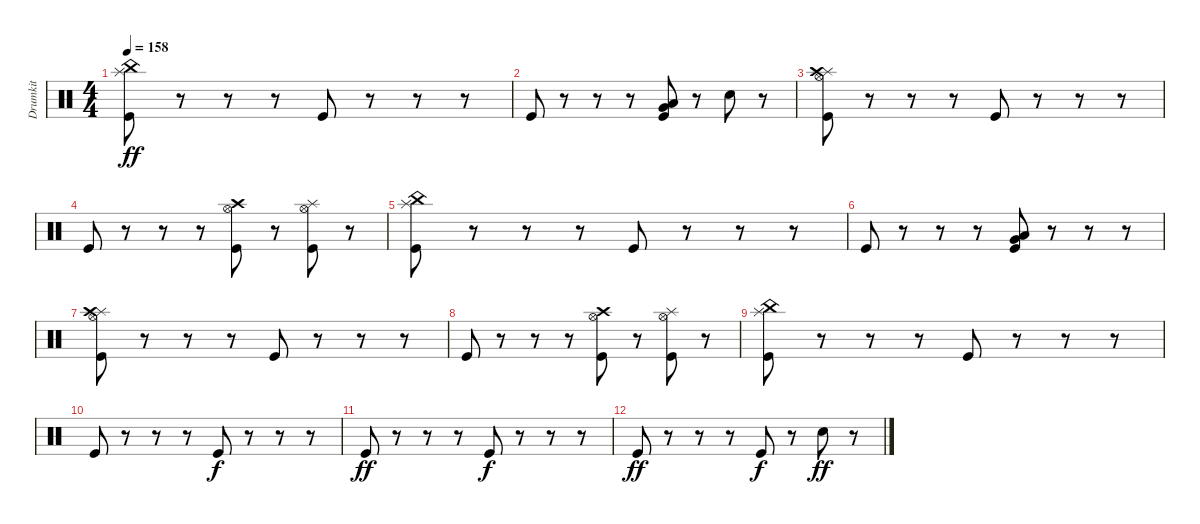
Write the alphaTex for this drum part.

\track ("Drumkit" "Drumkit") {instrument percussion}
\staff {score}
\articulation defaults
\ts (4 4)
\tempo 158
\clef neutral
\ks c
("Splash (hit)" "China (hit)" "Kick (hit)").8{dy ff} r.8 r.8 r.8 "Kick (hit)".8 r.8 r.8 r.8 |
"Kick (hit)".8 r.8 r.8 r.8 ("Low Floor Tom (hit)" "Very Low Tom (hit)" "Kick (hit)").8 r.8 "Snare (hit) 2".8 r.8 |
("Splash (hit)" "Hi-Hat (open)" "Crash high (hit)" "Kick (hit)").8 r.8 r.8 r.8 "Kick (hit)".8 r.8 r.8 r.8 |
"Kick (hit)".8 r.8 r.8 r.8 ("Kick (hit)" "Hi-Hat (open)" "Crash high (hit)").8 r.8 ("Kick (hit)" "Hi-Hat (open)" "Splash (hit)").8 r.8 |
("Splash (hit)" "China (hit)" "Kick (hit)").8 r.8 r.8 r.8 "Kick (hit)".8 r.8 r.8 r.8 |
"Kick (hit)".8 r.8 r.8 r.8 ("Low Floor Tom (hit)" "Very Low Tom (hit)" "Kick (hit)").8 r.8 r.8 r.8 |
("Splash (hit)" "Hi-Hat (open)" "Crash high (hit)" "Kick (hit)").8 r.8 r.8 r.8 "Kick (hit)".8 r.8 r.8 r.8 |
"Kick (hit)".8 r.8 r.8 r.8 ("Kick (hit)" "Hi-Hat (open)" "Crash high (hit)").8 r.8 ("Kick (hit)" "Hi-Hat (open)" "Splash (hit)").8 r.8 |
("Splash (hit)" "China (hit)" "Kick (hit)").8 r.8 r.8 r.8 "Kick (hit)".8 r.8 r.8 r.8 |
"Kick (hit)".8 r.8 r.8 r.8 "Kick (hit)".8{dy f} r.8 r.8 r.8 |
"Kick (hit)".8{dy ff} r.8 r.8 r.8 "Kick (hit)".8{dy f} r.8 r.8 r.8 |
"Kick (hit)".8{dy ff} r.8 r.8 r.8 "Kick (hit)".8{dy f} r.8 "Snare (hit) 2".8{dy ff} r.8
